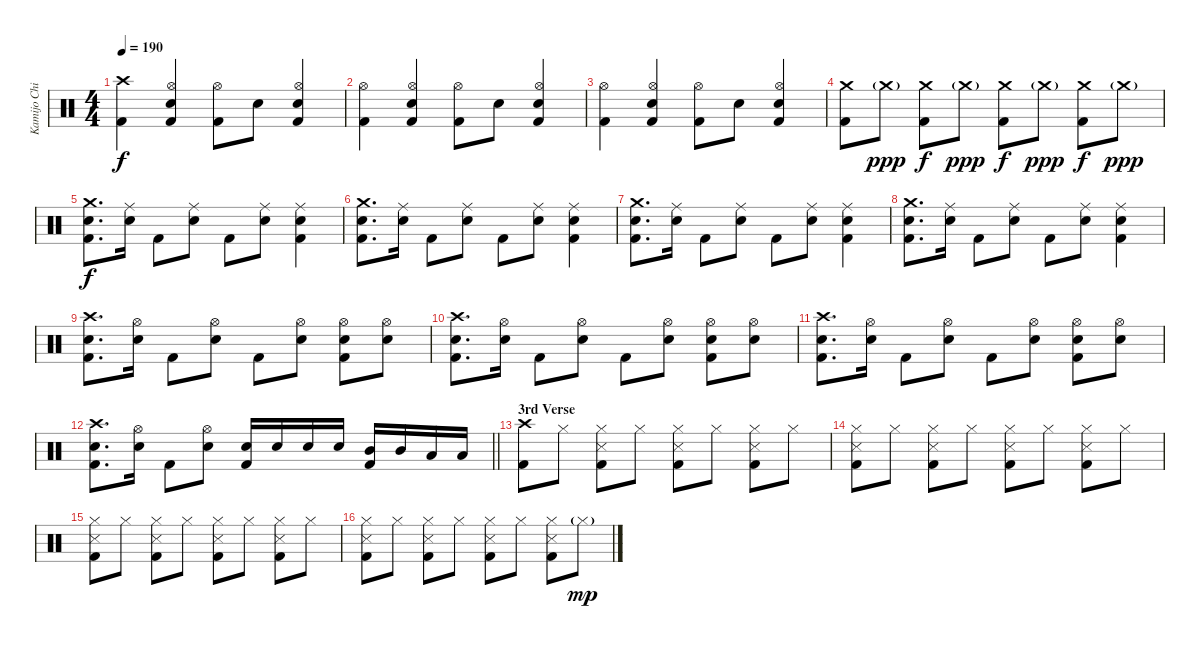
\track ("Kamijo Chihiro" "Kamijo Chi") {instrument percussion}
\staff {score}
\articulation defaults
\ts (4 4)
\tempo 190
\clef neutral
\ks c
("Crash high (hit)" "Kick (hit) 2").4{dy f} ("Hi-Hat (open)" "Snare (hit) 2" "Kick (hit) 2").4 ("Hi-Hat (open)" "Kick (hit) 2").8 "Snare (hit) 2".8 ("Hi-Hat (open)" "Snare (hit) 2" "Kick (hit) 2").4 |
("Hi-Hat (open)" "Kick (hit) 2").4 ("Hi-Hat (open)" "Snare (hit) 2" "Kick (hit) 2").4 ("Hi-Hat (open)" "Kick (hit) 2").8 "Snare (hit) 2".8 ("Hi-Hat (open)" "Snare (hit) 2" "Kick (hit) 2").4 |
("Hi-Hat (open)" "Kick (hit) 2").4 ("Hi-Hat (open)" "Snare (hit) 2" "Kick (hit) 2").4 ("Hi-Hat (open)" "Kick (hit) 2").8 "Snare (hit) 2".8 ("Hi-Hat (open)" "Snare (hit) 2" "Kick (hit) 2").4 |
("Crash medium (hit)" "Kick (hit) 2").8 "Crash medium (hit)"{g}.8{dy ppp} ("Crash medium (hit)" "Kick (hit) 2").8{dy f} "Crash medium (hit)"{g}.8{dy ppp} ("Crash medium (hit)" "Kick (hit) 2").8{dy f} "Crash medium (hit)"{g}.8{dy ppp} ("Crash medium (hit)" "Kick (hit) 2").8{dy f} "Crash medium (hit)"{g}.8{dy ppp} |
("Crash medium (hit)" "Snare (hit) 2" "Kick (hit) 2").8{d dy f} ("Ride (middle)" "Snare (hit) 2").16 "Kick (hit) 2".8 ("Ride (middle)" "Snare (hit) 2").8 "Kick (hit) 2".8 ("Ride (middle)" "Snare (hit) 2").8 ("Ride (middle)" "Snare (hit) 2" "Kick (hit) 2").4 |
("Crash medium (hit)" "Snare (hit) 2" "Kick (hit) 2").8{d} ("Ride (middle)" "Snare (hit) 2").16 "Kick (hit) 2".8 ("Ride (middle)" "Snare (hit) 2").8 "Kick (hit) 2".8 ("Ride (middle)" "Snare (hit) 2").8 ("Ride (middle)" "Snare (hit) 2" "Kick (hit) 2").4 |
("Crash medium (hit)" "Snare (hit) 2" "Kick (hit) 2").8{d} ("Ride (middle)" "Snare (hit) 2").16 "Kick (hit) 2".8 ("Ride (middle)" "Snare (hit) 2").8 "Kick (hit) 2".8 ("Ride (middle)" "Snare (hit) 2").8 ("Ride (middle)" "Snare (hit) 2" "Kick (hit) 2").4 |
("Crash medium (hit)" "Snare (hit) 2" "Kick (hit) 2").8{d} ("Ride (middle)" "Snare (hit) 2").16 "Kick (hit) 2".8 ("Ride (middle)" "Snare (hit) 2").8 "Kick (hit) 2".8 ("Ride (middle)" "Snare (hit) 2").8 ("Ride (middle)" "Snare (hit) 2" "Kick (hit) 2").4 |
("Crash high (hit)" "Snare (hit) 2" "Kick (hit) 2").8{d} ("Hi-Hat (open)" "Snare (hit) 2").16 "Kick (hit) 2".8 ("Hi-Hat (open)" "Snare (hit) 2").8 "Kick (hit) 2".8 ("Hi-Hat (open)" "Snare (hit) 2").8 ("Hi-Hat (open)" "Snare (hit) 2" "Kick (hit) 2").8 ("Hi-Hat (open)" "Snare (hit) 2").8 |
("Crash high (hit)" "Snare (hit) 2" "Kick (hit) 2").8{d} ("Hi-Hat (open)" "Snare (hit) 2").16 "Kick (hit) 2".8 ("Hi-Hat (open)" "Snare (hit) 2").8 "Kick (hit) 2".8 ("Hi-Hat (open)" "Snare (hit) 2").8 ("Hi-Hat (open)" "Snare (hit) 2" "Kick (hit) 2").8 ("Hi-Hat (open)" "Snare (hit) 2").8 |
("Crash high (hit)" "Snare (hit) 2" "Kick (hit) 2").8{d} ("Hi-Hat (open)" "Snare (hit) 2").16 "Kick (hit) 2".8 ("Hi-Hat (open)" "Snare (hit) 2").8 "Kick (hit) 2".8 ("Hi-Hat (open)" "Snare (hit) 2").8 ("Hi-Hat (open)" "Snare (hit) 2" "Kick (hit) 2").8 ("Hi-Hat (open)" "Snare (hit) 2").8 |
\barLineRight lightlight
("Crash high (hit)" "Snare (hit) 2" "Kick (hit) 2").8{d} ("Hi-Hat (open)" "Snare (hit) 2").16 "Kick (hit) 2".8 ("Hi-Hat (open)" "Snare (hit) 2").8 ("Snare (hit) 2" "Kick (hit) 2").16 "Snare (hit) 2".16 "Snare (hit) 2".16 "Snare (hit) 2".16 ("Mid Tom (hit)" "Kick (hit) 2").16 "Mid Tom (hit)".16 "Low Tom (hit)".16 "Low Tom (hit)".16 |
\section ("" "3rd Verse")
("Crash high (hit)" "Kick (hit) 2").8 "Hi-Hat (closed)".8 ("Hi-Hat (closed)" "Snare (side stick) 3" "Kick (hit) 2").8 "Hi-Hat (closed)".8 ("Hi-Hat (closed)" "Snare (side stick) 3" "Kick (hit) 2").8 "Hi-Hat (closed)".8 ("Hi-Hat (closed)" "Snare (side stick) 3" "Kick (hit) 2").8 "Hi-Hat (closed)".8 |
("Hi-Hat (closed)" "Snare (side stick) 3" "Kick (hit) 2").8 "Hi-Hat (closed)".8 ("Hi-Hat (closed)" "Snare (side stick) 3" "Kick (hit) 2").8 "Hi-Hat (closed)".8 ("Hi-Hat (closed)" "Snare (side stick) 3" "Kick (hit) 2").8 "Hi-Hat (closed)".8 ("Hi-Hat (closed)" "Snare (side stick) 3" "Kick (hit) 2").8 "Hi-Hat (closed)".8 |
("Hi-Hat (closed)" "Snare (side stick) 3" "Kick (hit) 2").8 "Hi-Hat (closed)".8 ("Hi-Hat (closed)" "Snare (side stick) 3" "Kick (hit) 2").8 "Hi-Hat (closed)".8 ("Hi-Hat (closed)" "Snare (side stick) 3" "Kick (hit) 2").8 "Hi-Hat (closed)".8 ("Hi-Hat (closed)" "Snare (side stick) 3" "Kick (hit) 2").8 "Hi-Hat (closed)".8 |
("Hi-Hat (closed)" "Snare (side stick) 3" "Kick (hit) 2").8 "Hi-Hat (closed)".8 ("Hi-Hat (closed)" "Snare (side stick) 3" "Kick (hit) 2").8 "Hi-Hat (closed)".8 ("Hi-Hat (closed)" "Snare (side stick) 3" "Kick (hit) 2").8 "Hi-Hat (closed)".8 ("Hi-Hat (closed)" "Snare (side stick) 3" "Kick (hit) 2").8 "Hi-Hat (closed)"{g}.8{dy mp}
